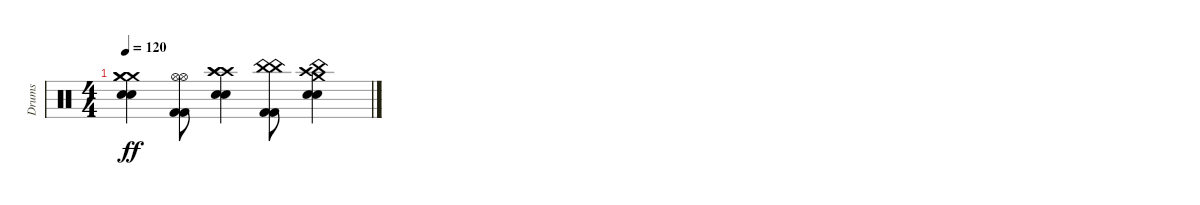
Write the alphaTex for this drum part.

\track ("Drums" "Drums") {instrument percussion}
\staff {score}
\articulation defaults
\ts (4 4)
\tempo 120
\clef neutral
\ks c
("Crash medium (hit)" "Crash medium (hit)" "Crash medium (hit)" "Snare (hit) 2" "Snare (hit) 2").4{dy ff} ("Hi-Hat (open)" "Hi-Hat (open)" "Kick (hit) 2" "Kick (hit) 2").8 ("Crash high (hit)" "Crash high (hit)" "Crash high (hit)" "Snare (hit) 2" "Snare (hit) 2").4 ("China (hit)" "China (hit)" "Kick (hit) 2" "Kick (hit) 2").8 ("Crash medium (hit)" "Crash high (hit)" "China (hit)" "Snare (hit) 2" "Snare (hit) 2").4
